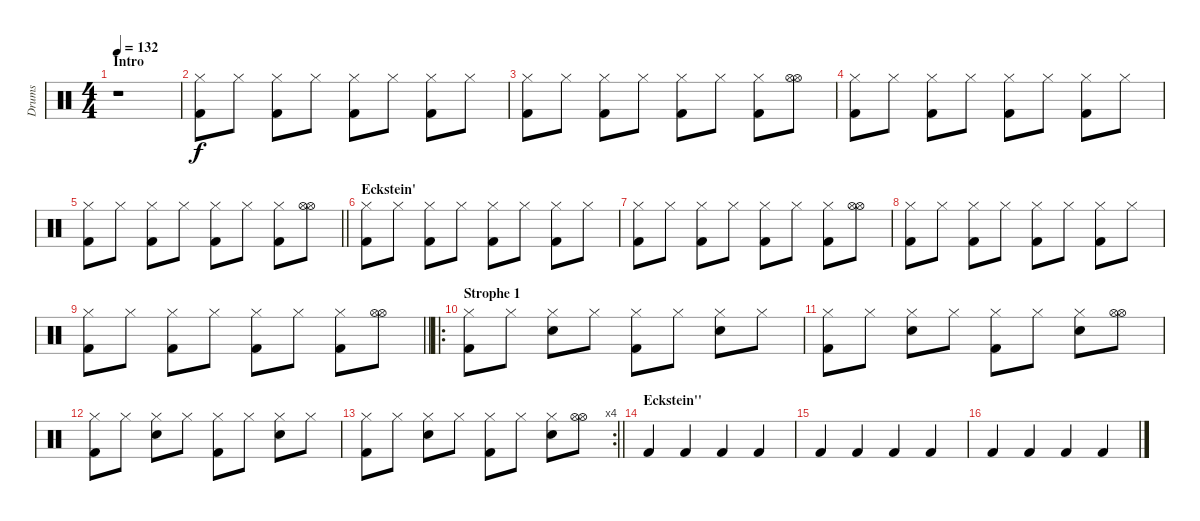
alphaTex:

\track ("Drums" "Drums") {instrument percussion}
\staff {score}
\articulation defaults
\ts (4 4)
\section ("" "Intro")
\tempo 132
\clef neutral
\ks c
r.1{dy f} |
("Hi-Hat (closed)" "Kick (hit) 2").8 "Hi-Hat (closed)".8 ("Hi-Hat (closed)" "Kick (hit) 2").8 "Hi-Hat (closed)".8 ("Hi-Hat (closed)" "Kick (hit) 2").8 "Hi-Hat (closed)".8 ("Hi-Hat (closed)" "Kick (hit) 2").8 "Hi-Hat (closed)".8 |
("Hi-Hat (closed)" "Kick (hit) 2").8 "Hi-Hat (closed)".8 ("Hi-Hat (closed)" "Kick (hit) 2").8 "Hi-Hat (closed)".8 ("Hi-Hat (closed)" "Kick (hit) 2").8 "Hi-Hat (closed)".8 ("Hi-Hat (closed)" "Kick (hit) 2").8 ("Hi-Hat (open)" "Hi-Hat (open)").8 |
("Hi-Hat (closed)" "Kick (hit) 2").8 "Hi-Hat (closed)".8 ("Hi-Hat (closed)" "Kick (hit) 2").8 "Hi-Hat (closed)".8 ("Hi-Hat (closed)" "Kick (hit) 2").8 "Hi-Hat (closed)".8 ("Hi-Hat (closed)" "Kick (hit) 2").8 "Hi-Hat (closed)".8 |
\barLineRight lightlight
("Hi-Hat (closed)" "Kick (hit) 2").8 "Hi-Hat (closed)".8 ("Hi-Hat (closed)" "Kick (hit) 2").8 "Hi-Hat (closed)".8 ("Hi-Hat (closed)" "Kick (hit) 2").8 "Hi-Hat (closed)".8 ("Hi-Hat (closed)" "Kick (hit) 2").8 ("Hi-Hat (open)" "Hi-Hat (open)").8 |
\section ("" "Eckstein'")
("Hi-Hat (closed)" "Kick (hit) 2").8 "Hi-Hat (closed)".8 ("Hi-Hat (closed)" "Kick (hit) 2").8 "Hi-Hat (closed)".8 ("Hi-Hat (closed)" "Kick (hit) 2").8 "Hi-Hat (closed)".8 ("Hi-Hat (closed)" "Kick (hit) 2").8 "Hi-Hat (closed)".8 |
("Hi-Hat (closed)" "Kick (hit) 2").8 "Hi-Hat (closed)".8 ("Hi-Hat (closed)" "Kick (hit) 2").8 "Hi-Hat (closed)".8 ("Hi-Hat (closed)" "Kick (hit) 2").8 "Hi-Hat (closed)".8 ("Hi-Hat (closed)" "Kick (hit) 2").8 ("Hi-Hat (open)" "Hi-Hat (open)").8 |
("Hi-Hat (closed)" "Kick (hit) 2").8 "Hi-Hat (closed)".8 ("Hi-Hat (closed)" "Kick (hit) 2").8 "Hi-Hat (closed)".8 ("Hi-Hat (closed)" "Kick (hit) 2").8 "Hi-Hat (closed)".8 ("Hi-Hat (closed)" "Kick (hit) 2").8 "Hi-Hat (closed)".8 |
\barLineRight lightlight
("Hi-Hat (closed)" "Kick (hit) 2").8 "Hi-Hat (closed)".8 ("Hi-Hat (closed)" "Kick (hit) 2").8 "Hi-Hat (closed)".8 ("Hi-Hat (closed)" "Kick (hit) 2").8 "Hi-Hat (closed)".8 ("Hi-Hat (closed)" "Kick (hit) 2").8 ("Hi-Hat (open)" "Hi-Hat (open)").8 |
\ro
\section ("" "Strophe 1")
("Hi-Hat (closed)" "Kick (hit) 2").8 "Hi-Hat (closed)".8 ("Hi-Hat (closed)" "Electric Snare (hit)").8 "Hi-Hat (closed)".8 ("Hi-Hat (closed)" "Kick (hit) 2").8 "Hi-Hat (closed)".8 ("Hi-Hat (closed)" "Electric Snare (hit)").8 "Hi-Hat (closed)".8 |
("Hi-Hat (closed)" "Kick (hit) 2").8 "Hi-Hat (closed)".8 ("Hi-Hat (closed)" "Electric Snare (hit)").8 "Hi-Hat (closed)".8 ("Hi-Hat (closed)" "Kick (hit) 2").8 "Hi-Hat (closed)".8 ("Hi-Hat (closed)" "Electric Snare (hit)").8 ("Hi-Hat (open)" "Hi-Hat (open)").8 |
("Hi-Hat (closed)" "Kick (hit) 2").8 "Hi-Hat (closed)".8 ("Hi-Hat (closed)" "Electric Snare (hit)").8 "Hi-Hat (closed)".8 ("Hi-Hat (closed)" "Kick (hit) 2").8 "Hi-Hat (closed)".8 ("Hi-Hat (closed)" "Electric Snare (hit)").8 "Hi-Hat (closed)".8 |
\rc 4
\barLineRight lightlight
("Hi-Hat (closed)" "Kick (hit) 2").8 "Hi-Hat (closed)".8 ("Hi-Hat (closed)" "Electric Snare (hit)").8 "Hi-Hat (closed)".8 ("Hi-Hat (closed)" "Kick (hit) 2").8 "Hi-Hat (closed)".8 ("Hi-Hat (closed)" "Electric Snare (hit)").8 ("Hi-Hat (open)" "Hi-Hat (open)").8 |
\section ("" "Eckstein''")
"Kick (hit) 2".4 "Kick (hit) 2".4 "Kick (hit) 2".4 "Kick (hit) 2".4 |
"Kick (hit) 2".4 "Kick (hit) 2".4 "Kick (hit) 2".4 "Kick (hit) 2".4 |
"Kick (hit) 2".4 "Kick (hit) 2".4 "Kick (hit) 2".4 "Kick (hit) 2".4
